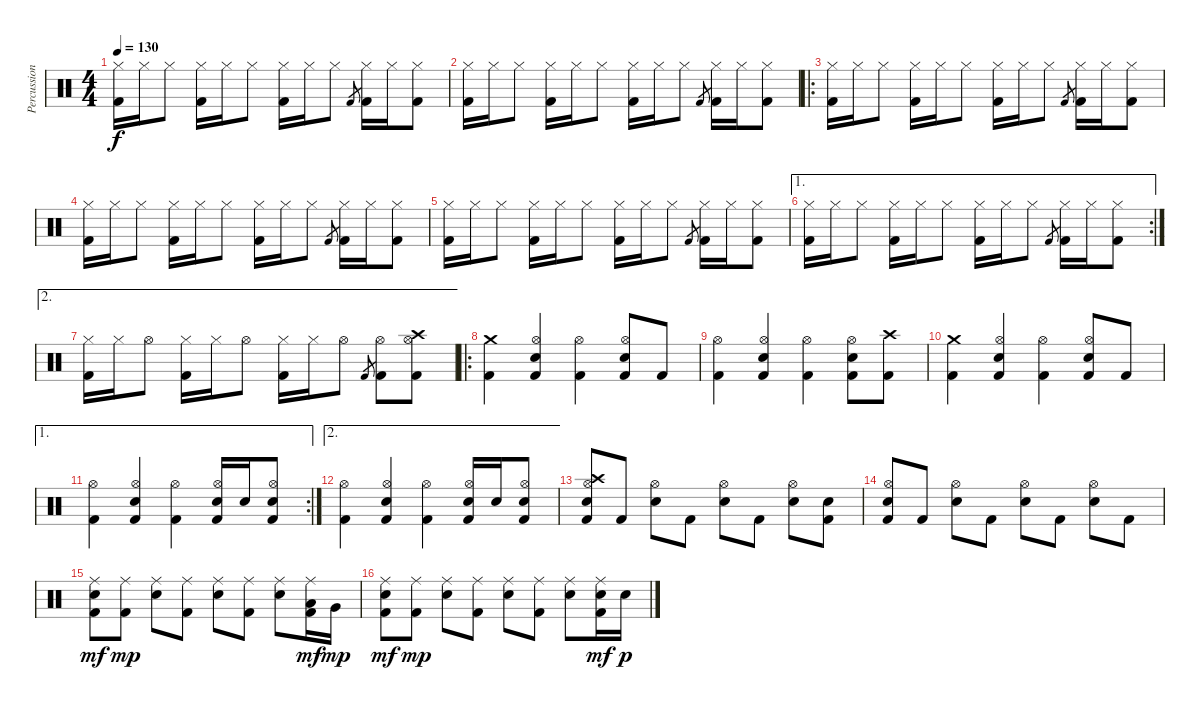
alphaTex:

\track ("Percussion" "Percussion") {instrument percussion}
\staff {score}
\articulation defaults
\ts (4 4)
\tempo 130
\clef neutral
\ks c
("Hi-Hat (closed)" "Kick (hit) 2").16{dy f} "Hi-Hat (closed)".16 "Hi-Hat (closed)".8 ("Hi-Hat (closed)" "Kick (hit) 2").16 "Hi-Hat (closed)".16 "Hi-Hat (closed)".8 ("Hi-Hat (closed)" "Kick (hit) 2").16 "Hi-Hat (closed)".16 "Hi-Hat (closed)".8 "Kick (hit) 2".8{gr} ("Hi-Hat (closed)" "Kick (hit) 2").16 "Hi-Hat (closed)".16 ("Hi-Hat (closed)" "Kick (hit) 2").8 |
("Hi-Hat (closed)" "Kick (hit) 2").16 "Hi-Hat (closed)".16 "Hi-Hat (closed)".8 ("Hi-Hat (closed)" "Kick (hit) 2").16 "Hi-Hat (closed)".16 "Hi-Hat (closed)".8 ("Hi-Hat (closed)" "Kick (hit) 2").16 "Hi-Hat (closed)".16 "Hi-Hat (closed)".8 "Kick (hit) 2".8{gr} ("Hi-Hat (closed)" "Kick (hit) 2").16 "Hi-Hat (closed)".16 ("Hi-Hat (closed)" "Kick (hit) 2").8 |
\ro
("Hi-Hat (closed)" "Kick (hit) 2").16 "Hi-Hat (closed)".16 "Hi-Hat (closed)".8 ("Hi-Hat (closed)" "Kick (hit) 2").16 "Hi-Hat (closed)".16 "Hi-Hat (closed)".8 ("Hi-Hat (closed)" "Kick (hit) 2").16 "Hi-Hat (closed)".16 "Hi-Hat (closed)".8 "Kick (hit) 2".8{gr} ("Hi-Hat (closed)" "Kick (hit) 2").16 "Hi-Hat (closed)".16 ("Hi-Hat (closed)" "Kick (hit) 2").8 |
("Hi-Hat (closed)" "Kick (hit) 2").16 "Hi-Hat (closed)".16 "Hi-Hat (closed)".8 ("Hi-Hat (closed)" "Kick (hit) 2").16 "Hi-Hat (closed)".16 "Hi-Hat (closed)".8 ("Hi-Hat (closed)" "Kick (hit) 2").16 "Hi-Hat (closed)".16 "Hi-Hat (closed)".8 "Kick (hit) 2".8{gr} ("Hi-Hat (closed)" "Kick (hit) 2").16 "Hi-Hat (closed)".16 ("Hi-Hat (closed)" "Kick (hit) 2").8 |
("Hi-Hat (closed)" "Kick (hit) 2").16 "Hi-Hat (closed)".16 "Hi-Hat (closed)".8 ("Hi-Hat (closed)" "Kick (hit) 2").16 "Hi-Hat (closed)".16 "Hi-Hat (closed)".8 ("Hi-Hat (closed)" "Kick (hit) 2").16 "Hi-Hat (closed)".16 "Hi-Hat (closed)".8 "Kick (hit) 2".8{gr} ("Hi-Hat (closed)" "Kick (hit) 2").16 "Hi-Hat (closed)".16 ("Hi-Hat (closed)" "Kick (hit) 2").8 |
\ae 1
\rc 2
("Hi-Hat (closed)" "Kick (hit) 2").16 "Hi-Hat (closed)".16 "Hi-Hat (closed)".8 ("Hi-Hat (closed)" "Kick (hit) 2").16 "Hi-Hat (closed)".16 "Hi-Hat (closed)".8 ("Hi-Hat (closed)" "Kick (hit) 2").16 "Hi-Hat (closed)".16 "Hi-Hat (closed)".8 "Kick (hit) 2".8{gr} ("Hi-Hat (closed)" "Kick (hit) 2").16 "Hi-Hat (closed)".16 ("Hi-Hat (closed)" "Kick (hit) 2").8 |
\ae 2
("Hi-Hat (closed)" "Kick (hit) 2").16 "Hi-Hat (closed)".16 "Hi-Hat (open)".8 ("Hi-Hat (closed)" "Kick (hit) 2").16 "Hi-Hat (closed)".16 "Hi-Hat (open)".8 ("Hi-Hat (closed)" "Kick (hit) 2").16 "Hi-Hat (closed)".16 "Hi-Hat (open)".8 "Kick (hit) 2".8{gr} ("Hi-Hat (open)" "Kick (hit) 2").8 ("Crash high (hit)" "Hi-Hat (open)" "Kick (hit) 2").8 |
\ro
("Crash medium (hit)" "Kick (hit) 2").4 ("Hi-Hat (open)" "Electric Snare (hit)" "Kick (hit) 2").4 ("Hi-Hat (open)" "Kick (hit) 2").4 ("Hi-Hat (open)" "Electric Snare (hit)" "Kick (hit) 2").8 "Kick (hit) 2".8 |
("Hi-Hat (open)" "Kick (hit) 2").4 ("Hi-Hat (open)" "Electric Snare (hit)" "Kick (hit) 2").4 ("Hi-Hat (open)" "Kick (hit) 2").4 ("Hi-Hat (open)" "Electric Snare (hit)" "Kick (hit) 2").8 ("Crash high (hit)" "Kick (hit) 2").8 |
("Crash medium (hit)" "Kick (hit) 2").4 ("Hi-Hat (open)" "Electric Snare (hit)" "Kick (hit) 2").4 ("Hi-Hat (open)" "Kick (hit) 2").4 ("Hi-Hat (open)" "Electric Snare (hit)" "Kick (hit) 2").8 "Kick (hit) 2".8 |
\ae 1
\rc 2
("Hi-Hat (open)" "Kick (hit) 2").4 ("Hi-Hat (open)" "Electric Snare (hit)" "Kick (hit) 2").4 ("Hi-Hat (open)" "Kick (hit) 2").4 ("Hi-Hat (open)" "Electric Snare (hit)" "Kick (hit) 2").16 "Electric Snare (hit)".16 ("Hi-Hat (open)" "Electric Snare (hit)" "Kick (hit) 2").8 |
\ae 2
("Hi-Hat (open)" "Kick (hit) 2").4 ("Hi-Hat (open)" "Electric Snare (hit)" "Kick (hit) 2").4 ("Hi-Hat (open)" "Kick (hit) 2").4 ("Hi-Hat (open)" "Electric Snare (hit)" "Kick (hit) 2").16 "Electric Snare (hit)".16 ("Hi-Hat (open)" "Electric Snare (hit)" "Kick (hit) 2").8 |
("Crash high (hit)" "Hi-Hat (open)" "Electric Snare (hit)" "Kick (hit) 2").8 "Kick (hit) 2".8 ("Hi-Hat (open)" "Electric Snare (hit)").8 "Kick (hit) 2".8 ("Hi-Hat (open)" "Electric Snare (hit)").8 "Kick (hit) 2".8 ("Hi-Hat (open)" "Electric Snare (hit)").8 ("Electric Snare (hit)" "Kick (hit) 2").8 |
("Hi-Hat (open)" "Electric Snare (hit)" "Kick (hit) 2").8 "Kick (hit) 2".8 ("Hi-Hat (open)" "Electric Snare (hit)").8 "Kick (hit) 2".8 ("Hi-Hat (open)" "Electric Snare (hit)").8 "Kick (hit) 2".8 ("Hi-Hat (open)" "Electric Snare (hit)").8 "Kick (hit) 2".8 |
("Ride (middle)" "Electric Snare (hit)" "Kick (hit) 2").8{dy mf} ("Ride (middle)" "Kick (hit) 2").8{dy mp} ("Ride (middle)" "Electric Snare (hit)").8 ("Ride (middle)" "Kick (hit) 2").8 ("Ride (middle)" "Electric Snare (hit)").8 ("Ride (middle)" "Kick (hit) 2").8 ("Ride (middle)" "Electric Snare (hit)").8 ("Ride (middle)" "Low Tom (hit)" "Kick (hit) 2").16{dy mf} "Very Low Tom (hit)".16{dy mp} |
("Ride (middle)" "Electric Snare (hit)" "Kick (hit) 2").8{dy mf} ("Ride (middle)" "Kick (hit) 2").8{dy mp} ("Ride (middle)" "Electric Snare (hit)").8 ("Ride (middle)" "Kick (hit) 2").8 ("Ride (middle)" "Electric Snare (hit)").8 ("Ride (middle)" "Kick (hit) 2").8 ("Ride (middle)" "Electric Snare (hit)").8 ("Ride (middle)" "Electric Snare (hit)" "Kick (hit) 2").16{dy mf} "Electric Snare (hit)".16{dy p}
